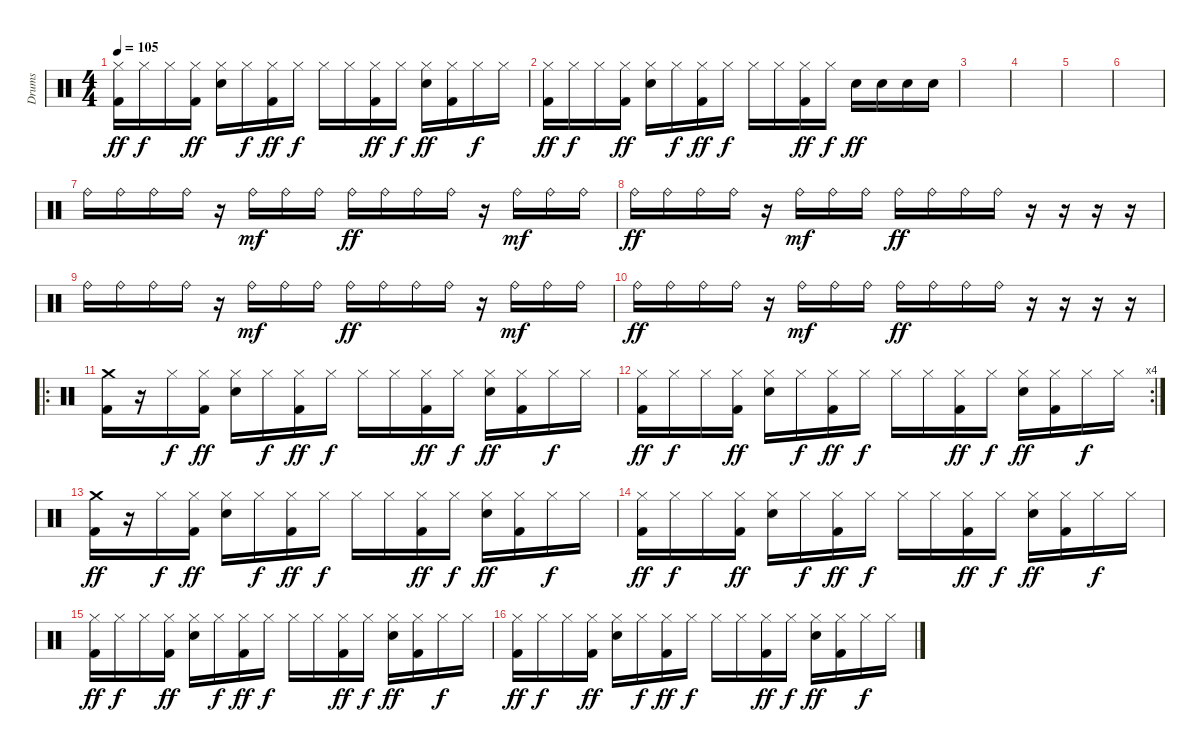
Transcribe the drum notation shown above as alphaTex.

\track ("Drums" "Drums") {instrument percussion}
\staff {score}
\articulation defaults
\ts (4 4)
\tempo 105
\clef neutral
\ks c
("Hi-Hat (closed)" "Kick (hit) 2").16{dy ff} "Hi-Hat (closed)".16{dy f} "Hi-Hat (closed)".16 ("Hi-Hat (closed)" "Kick (hit) 2").16{dy ff} ("Hi-Hat (closed)" "Electric Snare (hit)").16 "Hi-Hat (closed)".16{dy f} ("Hi-Hat (closed)" "Kick (hit) 2").16{dy ff} "Hi-Hat (closed)".16{dy f} "Hi-Hat (closed)".16 "Hi-Hat (closed)".16 ("Hi-Hat (closed)" "Kick (hit) 2").16{dy ff} "Hi-Hat (closed)".16{dy f} ("Hi-Hat (closed)" "Electric Snare (hit)").16{dy ff} ("Hi-Hat (closed)" "Kick (hit) 2").16 "Hi-Hat (closed)".16{dy f} "Hi-Hat (closed)".16 |
("Hi-Hat (closed)" "Kick (hit) 2").16{dy ff} "Hi-Hat (closed)".16{dy f} "Hi-Hat (closed)".16 ("Hi-Hat (closed)" "Kick (hit) 2").16{dy ff} ("Hi-Hat (closed)" "Electric Snare (hit)").16 "Hi-Hat (closed)".16{dy f} ("Hi-Hat (closed)" "Kick (hit) 2").16{dy ff} "Hi-Hat (closed)".16{dy f} "Hi-Hat (closed)".16 "Hi-Hat (closed)".16 ("Hi-Hat (closed)" "Kick (hit) 2").16{dy ff} "Hi-Hat (closed)".16{dy f} "Electric Snare (hit)".16{dy ff} "Electric Snare (hit)".16 "Electric Snare (hit)".16 "Electric Snare (hit)".16 |
|
|
|
|
"Ride (bell)".16 "Ride (bell)".16 "Ride (bell)".16 "Ride (bell)".16 r.16 "Ride (bell)".16{dy mf} "Ride (bell)".16 "Ride (bell)".16 "Ride (bell)".16{dy ff} "Ride (bell)".16 "Ride (bell)".16 "Ride (bell)".16 r.16 "Ride (bell)".16{dy mf} "Ride (bell)".16 "Ride (bell)".16 |
"Ride (bell)".16{dy ff} "Ride (bell)".16 "Ride (bell)".16 "Ride (bell)".16 r.16 "Ride (bell)".16{dy mf} "Ride (bell)".16 "Ride (bell)".16 "Ride (bell)".16{dy ff} "Ride (bell)".16 "Ride (bell)".16 "Ride (bell)".16 r.16 r.16 r.16 r.16 |
"Ride (bell)".16 "Ride (bell)".16 "Ride (bell)".16 "Ride (bell)".16 r.16 "Ride (bell)".16{dy mf} "Ride (bell)".16 "Ride (bell)".16 "Ride (bell)".16{dy ff} "Ride (bell)".16 "Ride (bell)".16 "Ride (bell)".16 r.16 "Ride (bell)".16{dy mf} "Ride (bell)".16 "Ride (bell)".16 |
"Ride (bell)".16{dy ff} "Ride (bell)".16 "Ride (bell)".16 "Ride (bell)".16 r.16 "Ride (bell)".16{dy mf} "Ride (bell)".16 "Ride (bell)".16 "Ride (bell)".16{dy ff} "Ride (bell)".16 "Ride (bell)".16 "Ride (bell)".16 r.16 r.16 r.16 r.16 |
\ro
("Crash medium (hit)" "Kick (hit) 2").16 r.16 "Hi-Hat (closed)".16{dy f} ("Hi-Hat (closed)" "Kick (hit) 2").16{dy ff} ("Hi-Hat (closed)" "Electric Snare (hit)").16 "Hi-Hat (closed)".16{dy f} ("Hi-Hat (closed)" "Kick (hit) 2").16{dy ff} "Hi-Hat (closed)".16{dy f} "Hi-Hat (closed)".16 "Hi-Hat (closed)".16 ("Hi-Hat (closed)" "Kick (hit) 2").16{dy ff} "Hi-Hat (closed)".16{dy f} ("Hi-Hat (closed)" "Electric Snare (hit)").16{dy ff} ("Hi-Hat (closed)" "Kick (hit) 2").16 "Hi-Hat (closed)".16{dy f} "Hi-Hat (closed)".16 |
\rc 4
("Hi-Hat (closed)" "Kick (hit) 2").16{dy ff} "Hi-Hat (closed)".16{dy f} "Hi-Hat (closed)".16 ("Hi-Hat (closed)" "Kick (hit) 2").16{dy ff} ("Hi-Hat (closed)" "Electric Snare (hit)").16 "Hi-Hat (closed)".16{dy f} ("Hi-Hat (closed)" "Kick (hit) 2").16{dy ff} "Hi-Hat (closed)".16{dy f} "Hi-Hat (closed)".16 "Hi-Hat (closed)".16 ("Hi-Hat (closed)" "Kick (hit) 2").16{dy ff} "Hi-Hat (closed)".16{dy f} ("Hi-Hat (closed)" "Electric Snare (hit)").16{dy ff} ("Hi-Hat (closed)" "Kick (hit) 2").16 "Hi-Hat (closed)".16{dy f} "Hi-Hat (closed)".16 |
("Crash medium (hit)" "Kick (hit) 2").16{dy ff} r.16 "Hi-Hat (closed)".16{dy f} ("Hi-Hat (closed)" "Kick (hit) 2").16{dy ff} ("Hi-Hat (closed)" "Electric Snare (hit)").16 "Hi-Hat (closed)".16{dy f} ("Hi-Hat (closed)" "Kick (hit) 2").16{dy ff} "Hi-Hat (closed)".16{dy f} "Hi-Hat (closed)".16 "Hi-Hat (closed)".16 ("Hi-Hat (closed)" "Kick (hit) 2").16{dy ff} "Hi-Hat (closed)".16{dy f} ("Hi-Hat (closed)" "Electric Snare (hit)").16{dy ff} ("Hi-Hat (closed)" "Kick (hit) 2").16 "Hi-Hat (closed)".16{dy f} "Hi-Hat (closed)".16 |
("Hi-Hat (closed)" "Kick (hit) 2").16{dy ff} "Hi-Hat (closed)".16{dy f} "Hi-Hat (closed)".16 ("Hi-Hat (closed)" "Kick (hit) 2").16{dy ff} ("Hi-Hat (closed)" "Electric Snare (hit)").16 "Hi-Hat (closed)".16{dy f} ("Hi-Hat (closed)" "Kick (hit) 2").16{dy ff} "Hi-Hat (closed)".16{dy f} "Hi-Hat (closed)".16 "Hi-Hat (closed)".16 ("Hi-Hat (closed)" "Kick (hit) 2").16{dy ff} "Hi-Hat (closed)".16{dy f} ("Hi-Hat (closed)" "Electric Snare (hit)").16{dy ff} ("Hi-Hat (closed)" "Kick (hit) 2").16 "Hi-Hat (closed)".16{dy f} "Hi-Hat (closed)".16 |
("Hi-Hat (closed)" "Kick (hit) 2").16{dy ff} "Hi-Hat (closed)".16{dy f} "Hi-Hat (closed)".16 ("Hi-Hat (closed)" "Kick (hit) 2").16{dy ff} ("Hi-Hat (closed)" "Electric Snare (hit)").16 "Hi-Hat (closed)".16{dy f} ("Hi-Hat (closed)" "Kick (hit) 2").16{dy ff} "Hi-Hat (closed)".16{dy f} "Hi-Hat (closed)".16 "Hi-Hat (closed)".16 ("Hi-Hat (closed)" "Kick (hit) 2").16{dy ff} "Hi-Hat (closed)".16{dy f} ("Hi-Hat (closed)" "Electric Snare (hit)").16{dy ff} ("Hi-Hat (closed)" "Kick (hit) 2").16 "Hi-Hat (closed)".16{dy f} "Hi-Hat (closed)".16 |
("Hi-Hat (closed)" "Kick (hit) 2").16{dy ff} "Hi-Hat (closed)".16{dy f} "Hi-Hat (closed)".16 ("Hi-Hat (closed)" "Kick (hit) 2").16{dy ff} ("Hi-Hat (closed)" "Electric Snare (hit)").16 "Hi-Hat (closed)".16{dy f} ("Hi-Hat (closed)" "Kick (hit) 2").16{dy ff} "Hi-Hat (closed)".16{dy f} "Hi-Hat (closed)".16 "Hi-Hat (closed)".16 ("Hi-Hat (closed)" "Kick (hit) 2").16{dy ff} "Hi-Hat (closed)".16{dy f} ("Hi-Hat (closed)" "Electric Snare (hit)").16{dy ff} ("Hi-Hat (closed)" "Kick (hit) 2").16 "Hi-Hat (closed)".16{dy f} "Hi-Hat (closed)".16
